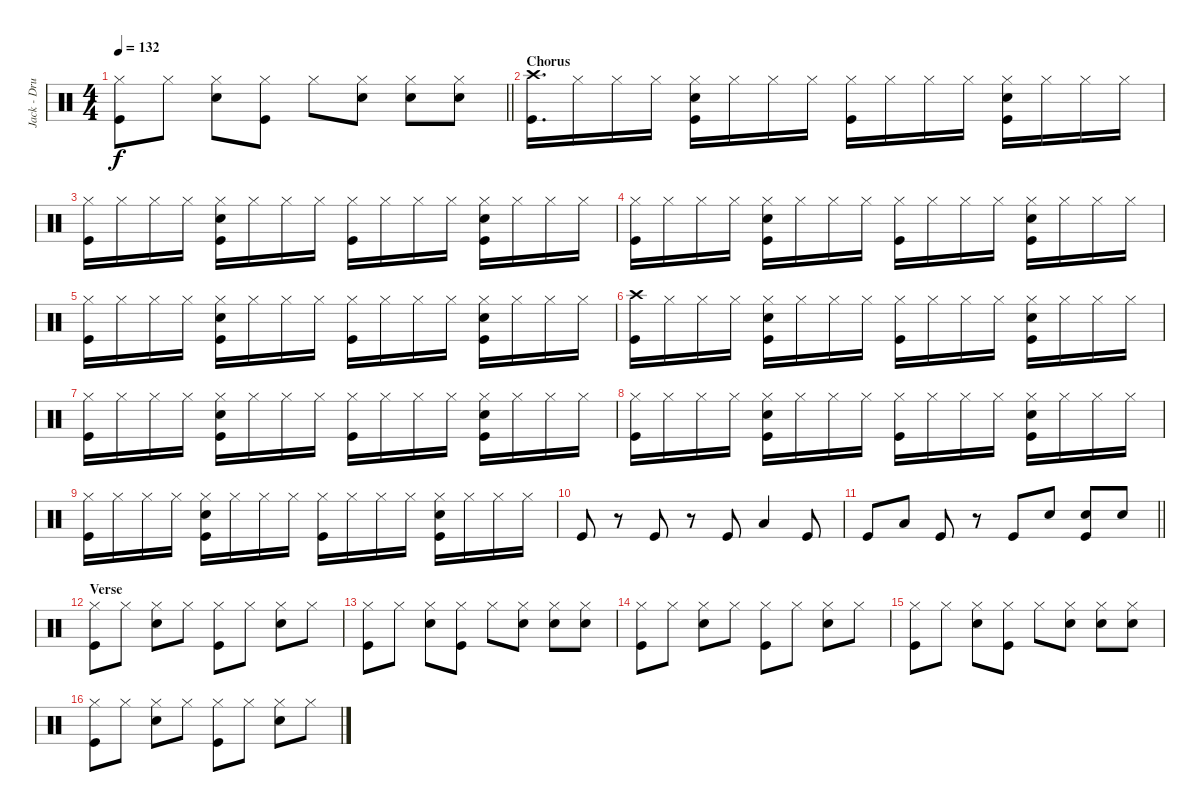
\track ("Jack - Drums" "Jack - Dru") {instrument percussion}
\staff {score}
\articulation defaults
\ts (4 4)
\tempo 132
\clef neutral
\barLineRight lightlight
\ks c
("Hi-Hat (closed)" "Kick (hit)").8{dy f} "Hi-Hat (closed)".8 ("Hi-Hat (closed)" "Snare (hit) 2").8 ("Hi-Hat (closed)" "Kick (hit)").8 "Hi-Hat (closed)".8 ("Hi-Hat (closed)" "Snare (hit) 2").8 ("Hi-Hat (closed)" "Snare (hit) 2").8 ("Hi-Hat (closed)" "Snare (hit) 2").8 |
\section ("" "Chorus")
("Crash high (hit)" "Kick (hit)").16{d} "Hi-Hat (closed)".16 "Hi-Hat (closed)".16 "Hi-Hat (closed)".16 ("Hi-Hat (closed)" "Snare (hit) 2" "Kick (hit)").16 "Hi-Hat (closed)".16 "Hi-Hat (closed)".16 "Hi-Hat (closed)".16 ("Hi-Hat (closed)" "Kick (hit)").16 "Hi-Hat (closed)".16 "Hi-Hat (closed)".16 "Hi-Hat (closed)".16 ("Hi-Hat (closed)" "Snare (hit) 2" "Kick (hit)").16 "Hi-Hat (closed)".16 "Hi-Hat (closed)".16 "Hi-Hat (closed)".16 |
("Hi-Hat (closed)" "Kick (hit)").16 "Hi-Hat (closed)".16 "Hi-Hat (closed)".16 "Hi-Hat (closed)".16 ("Hi-Hat (closed)" "Snare (hit) 2" "Kick (hit)").16 "Hi-Hat (closed)".16 "Hi-Hat (closed)".16 "Hi-Hat (closed)".16 ("Hi-Hat (closed)" "Kick (hit)").16 "Hi-Hat (closed)".16 "Hi-Hat (closed)".16 "Hi-Hat (closed)".16 ("Hi-Hat (closed)" "Snare (hit) 2" "Kick (hit)").16 "Hi-Hat (closed)".16 "Hi-Hat (closed)".16 "Hi-Hat (closed)".16 |
("Hi-Hat (closed)" "Kick (hit)").16 "Hi-Hat (closed)".16 "Hi-Hat (closed)".16 "Hi-Hat (closed)".16 ("Hi-Hat (closed)" "Snare (hit) 2" "Kick (hit)").16 "Hi-Hat (closed)".16 "Hi-Hat (closed)".16 "Hi-Hat (closed)".16 ("Hi-Hat (closed)" "Kick (hit)").16 "Hi-Hat (closed)".16 "Hi-Hat (closed)".16 "Hi-Hat (closed)".16 ("Hi-Hat (closed)" "Snare (hit) 2" "Kick (hit)").16 "Hi-Hat (closed)".16 "Hi-Hat (closed)".16 "Hi-Hat (closed)".16 |
("Hi-Hat (closed)" "Kick (hit)").16 "Hi-Hat (closed)".16 "Hi-Hat (closed)".16 "Hi-Hat (closed)".16 ("Hi-Hat (closed)" "Snare (hit) 2" "Kick (hit)").16 "Hi-Hat (closed)".16 "Hi-Hat (closed)".16 "Hi-Hat (closed)".16 ("Hi-Hat (closed)" "Kick (hit)").16 "Hi-Hat (closed)".16 "Hi-Hat (closed)".16 "Hi-Hat (closed)".16 ("Hi-Hat (closed)" "Snare (hit) 2" "Kick (hit)").16 "Hi-Hat (closed)".16 "Hi-Hat (closed)".16 "Hi-Hat (closed)".16 |
("Crash high (hit)" "Kick (hit)").16 "Hi-Hat (closed)".16 "Hi-Hat (closed)".16 "Hi-Hat (closed)".16 ("Hi-Hat (closed)" "Snare (hit) 2" "Kick (hit)").16 "Hi-Hat (closed)".16 "Hi-Hat (closed)".16 "Hi-Hat (closed)".16 ("Hi-Hat (closed)" "Kick (hit)").16 "Hi-Hat (closed)".16 "Hi-Hat (closed)".16 "Hi-Hat (closed)".16 ("Hi-Hat (closed)" "Snare (hit) 2" "Kick (hit)").16 "Hi-Hat (closed)".16 "Hi-Hat (closed)".16 "Hi-Hat (closed)".16 |
("Hi-Hat (closed)" "Kick (hit)").16 "Hi-Hat (closed)".16 "Hi-Hat (closed)".16 "Hi-Hat (closed)".16 ("Hi-Hat (closed)" "Snare (hit) 2" "Kick (hit)").16 "Hi-Hat (closed)".16 "Hi-Hat (closed)".16 "Hi-Hat (closed)".16 ("Hi-Hat (closed)" "Kick (hit)").16 "Hi-Hat (closed)".16 "Hi-Hat (closed)".16 "Hi-Hat (closed)".16 ("Hi-Hat (closed)" "Snare (hit) 2" "Kick (hit)").16 "Hi-Hat (closed)".16 "Hi-Hat (closed)".16 "Hi-Hat (closed)".16 |
("Hi-Hat (closed)" "Kick (hit)").16 "Hi-Hat (closed)".16 "Hi-Hat (closed)".16 "Hi-Hat (closed)".16 ("Hi-Hat (closed)" "Snare (hit) 2" "Kick (hit)").16 "Hi-Hat (closed)".16 "Hi-Hat (closed)".16 "Hi-Hat (closed)".16 ("Hi-Hat (closed)" "Kick (hit)").16 "Hi-Hat (closed)".16 "Hi-Hat (closed)".16 "Hi-Hat (closed)".16 ("Hi-Hat (closed)" "Snare (hit) 2" "Kick (hit)").16 "Hi-Hat (closed)".16 "Hi-Hat (closed)".16 "Hi-Hat (closed)".16 |
("Hi-Hat (closed)" "Kick (hit)").16 "Hi-Hat (closed)".16 "Hi-Hat (closed)".16 "Hi-Hat (closed)".16 ("Hi-Hat (closed)" "Snare (hit) 2" "Kick (hit)").16 "Hi-Hat (closed)".16 "Hi-Hat (closed)".16 "Hi-Hat (closed)".16 ("Hi-Hat (closed)" "Kick (hit)").16 "Hi-Hat (closed)".16 "Hi-Hat (closed)".16 "Hi-Hat (closed)".16 ("Hi-Hat (closed)" "Snare (hit) 2" "Kick (hit)").16 "Hi-Hat (closed)".16 "Hi-Hat (closed)".16 "Hi-Hat (closed)".16 |
"Kick (hit)".8 r.8 "Kick (hit)".8 r.8 "Kick (hit)".8 "Low Floor Tom (hit)".4 "Kick (hit)".8 |
\barLineRight lightlight "Kick (hit)".8 "Low Floor Tom (hit)".8 "Kick (hit)".8
r.8 "Kick (hit)".8 "Snare (hit) 2".8 ("Snare (hit) 2" "Kick (hit)").8 "Snare (hit) 2".8 |
\section ("" "Verse")
("Hi-Hat (closed)" "Kick (hit)").8 "Hi-Hat (closed)".8 ("Hi-Hat (closed)" "Snare (hit) 2").8 "Hi-Hat (closed)".8 ("Hi-Hat (closed)" "Kick (hit)").8 "Hi-Hat (closed)".8 ("Hi-Hat (closed)" "Snare (hit) 2").8 "Hi-Hat (closed)".8 |
("Hi-Hat (closed)" "Kick (hit)").8 "Hi-Hat (closed)".8 ("Hi-Hat (closed)" "Snare (hit) 2").8 ("Hi-Hat (closed)" "Kick (hit)").8 "Hi-Hat (closed)".8 ("Hi-Hat (closed)" "Snare (hit) 2").8 ("Hi-Hat (closed)" "Snare (hit) 2").8 ("Hi-Hat (closed)" "Snare (hit) 2").8 |
("Hi-Hat (closed)" "Kick (hit)").8 "Hi-Hat (closed)".8 ("Hi-Hat (closed)" "Snare (hit) 2").8 "Hi-Hat (closed)".8 ("Hi-Hat (closed)" "Kick (hit)").8 "Hi-Hat (closed)".8 ("Hi-Hat (closed)" "Snare (hit) 2").8 "Hi-Hat (closed)".8 |
("Hi-Hat (closed)" "Kick (hit)").8 "Hi-Hat (closed)".8 ("Hi-Hat (closed)" "Snare (hit) 2").8 ("Hi-Hat (closed)" "Kick (hit)").8 "Hi-Hat (closed)".8 ("Hi-Hat (closed)" "Snare (hit) 2").8 ("Hi-Hat (closed)" "Snare (hit) 2").8 ("Hi-Hat (closed)" "Snare (hit) 2").8 |
("Hi-Hat (closed)" "Kick (hit)").8 "Hi-Hat (closed)".8 ("Hi-Hat (closed)" "Snare (hit) 2").8 "Hi-Hat (closed)".8 ("Hi-Hat (closed)" "Kick (hit)").8 "Hi-Hat (closed)".8 ("Hi-Hat (closed)" "Snare (hit) 2").8 "Hi-Hat (closed)".8
